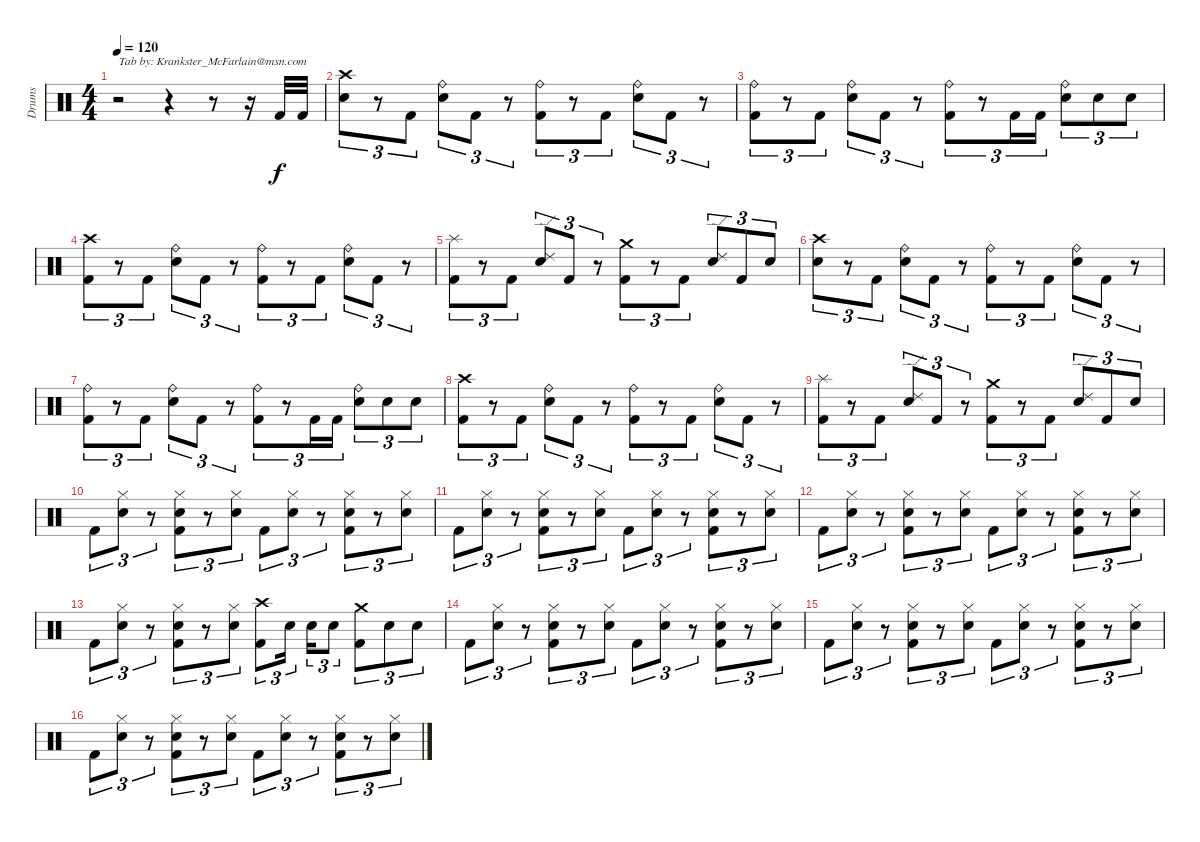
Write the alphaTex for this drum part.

\track ("Drums" "Drums") {instrument percussion}
\staff {score}
\articulation defaults
\ts (4 4)
\tempo 120
\clef neutral
\ks c
r.2{txt "Tab by: Krankster_McFarlain@msn.com" dy f} r.4 r.8 r.16 "Kick (hit) 2".32 "Kick (hit) 2".32 |
("Crash high (hit)" "Snare (hit) 2").8{tu (3 2)} r.8{tu (3 2)} "Kick (hit) 2".8{tu (3 2)} ("Ride (bell)" "Snare (hit) 2").8{tu (3 2)} "Kick (hit) 2".8{tu (3 2)} r.8{tu (3 2)} ("Ride (bell)" "Kick (hit) 2").8{tu (3 2)} r.8{tu (3 2)} "Kick (hit) 2".8{tu (3 2)} ("Ride (bell)" "Snare (hit) 2").8{tu (3 2)} "Kick (hit) 2".8{tu (3 2)} r.8{tu (3 2)} |
("Ride (bell)" "Kick (hit) 2").8{tu (3 2)} r.8{tu (3 2)} "Kick (hit) 2".8{tu (3 2)} ("Ride (bell)" "Snare (hit) 2").8{tu (3 2)} "Kick (hit) 2".8{tu (3 2)} r.8{tu (3 2)} ("Ride (bell)" "Kick (hit) 2").8{tu (3 2)} r.8{tu (3 2)} "Kick (hit) 2".16{tu (3 2)} "Kick (hit) 2".16{tu (3 2)} ("Ride (bell)" "Snare (hit) 2").8{tu (3 2)} "Snare (hit) 2".8{tu (3 2)} "Snare (hit) 2".8{tu (3 2)} |
("Crash high (hit)" "Kick (hit) 2").8{tu (3 2)} r.8{tu (3 2)} "Kick (hit) 2".8{tu (3 2)} ("Ride (bell)" "Snare (hit) 2").8{tu (3 2)} "Kick (hit) 2".8{tu (3 2)} r.8{tu (3 2)} ("Ride (bell)" "Kick (hit) 2").8{tu (3 2)} r.8{tu (3 2)} "Kick (hit) 2".8{tu (3 2)} ("Ride (bell)" "Snare (hit) 2").8{tu (3 2)} "Kick (hit) 2".8{tu (3 2)} r.8{tu (3 2)} |
("Splash (hit)" "Kick (hit) 2").8{tu (3 2)} r.8{tu (3 2)} "Kick (hit) 2".8{tu (3 2)} ("Ride (edge) 2" "Snare (hit) 2").8{tu (3 2)} "Kick (hit) 2".8{tu (3 2)} r.8{tu (3 2)} ("Crash medium (hit)" "Kick (hit) 2").8{tu (3 2)} r.8{tu (3 2)} "Kick (hit) 2".8{tu (3 2)} ("Ride (edge) 2" "Snare (hit) 2").8{tu (3 2)} "Kick (hit) 2".8{tu (3 2)} "Snare (hit) 2".8{tu (3 2)} |
("Crash high (hit)" "Snare (hit) 2").8{tu (3 2)} r.8{tu (3 2)} "Kick (hit) 2".8{tu (3 2)} ("Ride (bell)" "Snare (hit) 2").8{tu (3 2)} "Kick (hit) 2".8{tu (3 2)} r.8{tu (3 2)} ("Ride (bell)" "Kick (hit) 2").8{tu (3 2)} r.8{tu (3 2)} "Kick (hit) 2".8{tu (3 2)} ("Ride (bell)" "Snare (hit) 2").8{tu (3 2)} "Kick (hit) 2".8{tu (3 2)} r.8{tu (3 2)} |
("Ride (bell)" "Kick (hit) 2").8{tu (3 2)} r.8{tu (3 2)} "Kick (hit) 2".8{tu (3 2)} ("Ride (bell)" "Snare (hit) 2").8{tu (3 2)} "Kick (hit) 2".8{tu (3 2)} r.8{tu (3 2)} ("Ride (bell)" "Kick (hit) 2").8{tu (3 2)} r.8{tu (3 2)} "Kick (hit) 2".16{tu (3 2)} "Kick (hit) 2".16{tu (3 2)} ("Ride (bell)" "Snare (hit) 2").8{tu (3 2)} "Snare (hit) 2".8{tu (3 2)} "Snare (hit) 2".8{tu (3 2)} |
("Crash high (hit)" "Kick (hit) 2").8{tu (3 2)} r.8{tu (3 2)} "Kick (hit) 2".8{tu (3 2)} ("Ride (bell)" "Snare (hit) 2").8{tu (3 2)} "Kick (hit) 2".8{tu (3 2)} r.8{tu (3 2)} ("Ride (bell)" "Kick (hit) 2").8{tu (3 2)} r.8{tu (3 2)} "Kick (hit) 2".8{tu (3 2)} ("Ride (bell)" "Snare (hit) 2").8{tu (3 2)} "Kick (hit) 2".8{tu (3 2)} r.8{tu (3 2)} |
("Splash (hit)" "Kick (hit) 2").8{tu (3 2)} r.8{tu (3 2)} "Kick (hit) 2".8{tu (3 2)} ("Ride (edge) 2" "Snare (hit) 2").8{tu (3 2)} "Kick (hit) 2".8{tu (3 2)} r.8{tu (3 2)} ("Crash medium (hit)" "Kick (hit) 2").8{tu (3 2)} r.8{tu (3 2)} "Kick (hit) 2".8{tu (3 2)} ("Ride (edge) 2" "Snare (hit) 2").8{tu (3 2)} "Kick (hit) 2".8{tu (3 2)} "Snare (hit) 2".8{tu (3 2)} |
"Kick (hit) 2".8{tu (3 2)} ("Hi-Hat (closed)" "Snare (hit) 2").8{tu (3 2)} r.8{tu (3 2)} ("Hi-Hat (closed)" "Snare (hit) 2" "Kick (hit) 2").8{tu (3 2)} r.8{tu (3 2)} ("Hi-Hat (closed)" "Snare (hit) 2").8{tu (3 2)} "Kick (hit) 2".8{tu (3 2)} ("Hi-Hat (closed)" "Snare (hit) 2").8{tu (3 2)} r.8{tu (3 2)} ("Hi-Hat (closed)" "Snare (hit) 2" "Kick (hit) 2").8{tu (3 2)} r.8{tu (3 2)} ("Hi-Hat (closed)" "Snare (hit) 2").8{tu (3 2)} |
"Kick (hit) 2".8{tu (3 2)} ("Hi-Hat (closed)" "Snare (hit) 2").8{tu (3 2)} r.8{tu (3 2)} ("Hi-Hat (closed)" "Snare (hit) 2" "Kick (hit) 2").8{tu (3 2)} r.8{tu (3 2)} ("Hi-Hat (closed)" "Snare (hit) 2").8{tu (3 2)} "Kick (hit) 2".8{tu (3 2)} ("Hi-Hat (closed)" "Snare (hit) 2").8{tu (3 2)} r.8{tu (3 2)} ("Hi-Hat (closed)" "Snare (hit) 2" "Kick (hit) 2").8{tu (3 2)} r.8{tu (3 2)} ("Hi-Hat (closed)" "Snare (hit) 2").8{tu (3 2)} |
"Kick (hit) 2".8{tu (3 2)} ("Hi-Hat (closed)" "Snare (hit) 2").8{tu (3 2)} r.8{tu (3 2)} ("Hi-Hat (closed)" "Snare (hit) 2" "Kick (hit) 2").8{tu (3 2)} r.8{tu (3 2)} ("Hi-Hat (closed)" "Snare (hit) 2").8{tu (3 2)} "Kick (hit) 2".8{tu (3 2)} ("Hi-Hat (closed)" "Snare (hit) 2").8{tu (3 2)} r.8{tu (3 2)} ("Hi-Hat (closed)" "Snare (hit) 2" "Kick (hit) 2").8{tu (3 2)} r.8{tu (3 2)} ("Hi-Hat (closed)" "Snare (hit) 2").8{tu (3 2)} |
"Kick (hit) 2".8{tu (3 2)} ("Hi-Hat (closed)" "Snare (hit) 2").8{tu (3 2)} r.8{tu (3 2)} ("Hi-Hat (closed)" "Snare (hit) 2" "Kick (hit) 2").8{tu (3 2)} r.8{tu (3 2)} ("Hi-Hat (closed)" "Snare (hit) 2").8{tu (3 2)} ("Crash high (hit)" "Kick (hit) 2").8{tu (3 2)} "Snare (hit) 2".16{tu (3 2)} "Snare (hit) 2".16{tu (3 2)} "Snare (hit) 2".8{tu (3 2)} ("Crash medium (hit)" "Kick (hit) 2").8{tu (3 2)} "Snare (hit) 2".8{tu (3 2)} "Snare (hit) 2".8{tu (3 2)} |
"Kick (hit) 2".8{tu (3 2)} ("Hi-Hat (closed)" "Snare (hit) 2").8{tu (3 2)} r.8{tu (3 2)} ("Hi-Hat (closed)" "Snare (hit) 2" "Kick (hit) 2").8{tu (3 2)} r.8{tu (3 2)} ("Hi-Hat (closed)" "Snare (hit) 2").8{tu (3 2)} "Kick (hit) 2".8{tu (3 2)} ("Hi-Hat (closed)" "Snare (hit) 2").8{tu (3 2)} r.8{tu (3 2)} ("Hi-Hat (closed)" "Snare (hit) 2" "Kick (hit) 2").8{tu (3 2)} r.8{tu (3 2)} ("Hi-Hat (closed)" "Snare (hit) 2").8{tu (3 2)} |
"Kick (hit) 2".8{tu (3 2)} ("Hi-Hat (closed)" "Snare (hit) 2").8{tu (3 2)} r.8{tu (3 2)} ("Hi-Hat (closed)" "Snare (hit) 2" "Kick (hit) 2").8{tu (3 2)} r.8{tu (3 2)} ("Hi-Hat (closed)" "Snare (hit) 2").8{tu (3 2)} "Kick (hit) 2".8{tu (3 2)} ("Hi-Hat (closed)" "Snare (hit) 2").8{tu (3 2)} r.8{tu (3 2)} ("Hi-Hat (closed)" "Snare (hit) 2" "Kick (hit) 2").8{tu (3 2)} r.8{tu (3 2)} ("Hi-Hat (closed)" "Snare (hit) 2").8{tu (3 2)} |
"Kick (hit) 2".8{tu (3 2)} ("Hi-Hat (closed)" "Snare (hit) 2").8{tu (3 2)} r.8{tu (3 2)} ("Hi-Hat (closed)" "Snare (hit) 2" "Kick (hit) 2").8{tu (3 2)} r.8{tu (3 2)} ("Hi-Hat (closed)" "Snare (hit) 2").8{tu (3 2)} "Kick (hit) 2".8{tu (3 2)} ("Hi-Hat (closed)" "Snare (hit) 2").8{tu (3 2)} r.8{tu (3 2)} ("Hi-Hat (closed)" "Snare (hit) 2" "Kick (hit) 2").8{tu (3 2)} r.8{tu (3 2)} ("Hi-Hat (closed)" "Snare (hit) 2").8{tu (3 2)}
